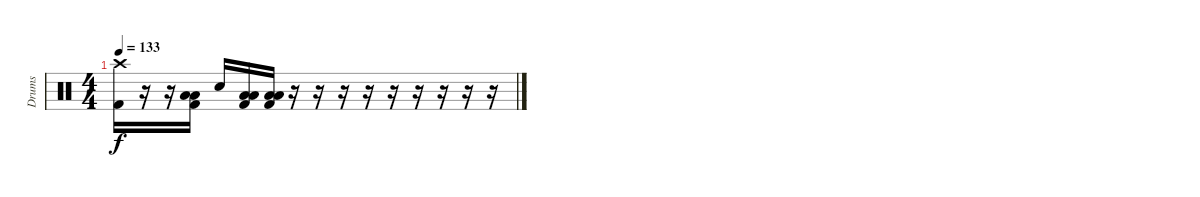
\track ("Drums" "Drums") {instrument percussion}
\staff {score}
\articulation defaults
\ts (4 4)
\tempo 133
\clef neutral
\ks c
("Crash high (hit)" "Kick (hit) 2").16{dy f} r.16 r.16 ("Low Floor Tom (hit)" "Low Floor Tom (hit)" "Kick (hit) 2").16 "Electric Snare (hit)".16 ("Low Floor Tom (hit)" "Low Floor Tom (hit)" "Kick (hit) 2").16 ("Low Floor Tom (hit)" "Low Floor Tom (hit)" "Kick (hit) 2").16 r.16 r.16 r.16 r.16 r.16 r.16 r.16 r.16 r.16
